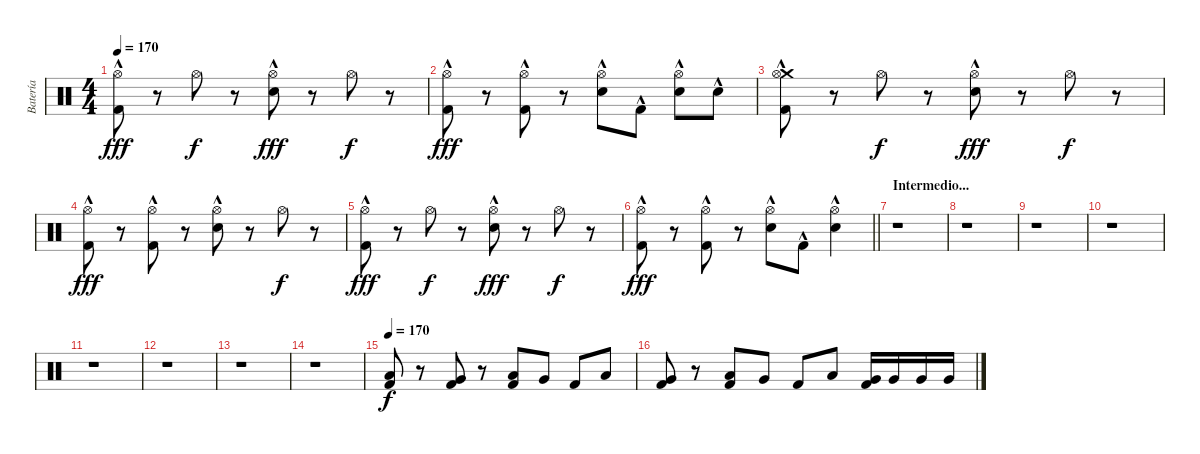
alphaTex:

\track ("Batería" "Batería") {instrument percussion}
\staff {score}
\articulation defaults
\ts (4 4)
\tempo 170
\clef neutral
\ks c
("Hi-Hat (open)" "Kick (hit) 2"{hac}).8{dy fff} r.8 "Hi-Hat (open)".8{dy f} r.8 ("Snare (hit) 2"{hac} "Hi-Hat (open)").8{dy fff} r.8 "Hi-Hat (open)".8{dy f} r.8 |
("Hi-Hat (open)" "Kick (hit) 2"{hac}).8{dy fff} r.8 ("Hi-Hat (open)" "Kick (hit) 2"{hac}).8 r.8 ("Snare (hit) 2"{hac} "Hi-Hat (open)").8 "Kick (hit) 2"{hac}.8 ("Snare (hit) 2"{hac} "Hi-Hat (open)").8 "Snare (hit) 2"{hac}.8 |
("Crash medium (hit)"{hac} "Hi-Hat (open)" "Kick (hit) 2"{hac}).8 r.8 "Hi-Hat (open)".8{dy f} r.8 ("Snare (hit) 2"{hac} "Hi-Hat (open)").8{dy fff} r.8 "Hi-Hat (open)".8{dy f} r.8 |
("Hi-Hat (open)" "Kick (hit) 2"{hac}).8{dy fff} r.8 ("Hi-Hat (open)" "Kick (hit) 2"{hac}).8 r.8 ("Snare (hit) 2"{hac} "Hi-Hat (open)").8 r.8 "Hi-Hat (open)".8{dy f} r.8 |
("Hi-Hat (open)" "Kick (hit) 2"{hac}).8{dy fff} r.8 "Hi-Hat (open)".8{dy f} r.8 ("Snare (hit) 2"{hac} "Hi-Hat (open)").8{dy fff} r.8 "Hi-Hat (open)".8{dy f} r.8 |
\barLineRight lightlight
("Hi-Hat (open)" "Kick (hit) 2"{hac}).8{dy fff} r.8 ("Hi-Hat (open)" "Kick (hit) 2"{hac}).8 r.8 ("Snare (hit) 2"{hac} "Hi-Hat (open)").8 "Kick (hit) 2"{hac}.8 ("Snare (hit) 2"{hac} "Hi-Hat (open)").4 |
\section ("" "Intermedio...")
r.1 |
r.1 |
r.1 |
r.1 |
r.1 |
r.1 |
r.1 |
r.1 |
\tempo 170
("Low Floor Tom (hit)" "Kick (hit) 2").8{dy f} r.8 ("Very Low Tom (hit)" "Kick (hit) 2").8 r.8 ("Low Floor Tom (hit)" "Kick (hit) 2").8 "Very Low Tom (hit)".8 "Kick (hit) 2".8 "Low Floor Tom (hit)".8 |
("Very Low Tom (hit)" "Kick (hit) 2").8 r.8 ("Low Floor Tom (hit)" "Kick (hit) 2").8 "Very Low Tom (hit)".8 "Kick (hit) 2".8 "Low Floor Tom (hit)".8 ("Very Low Tom (hit)" "Kick (hit) 2").16 "Very Low Tom (hit)".16 "Very Low Tom (hit)".16 "Very Low Tom (hit)".16
